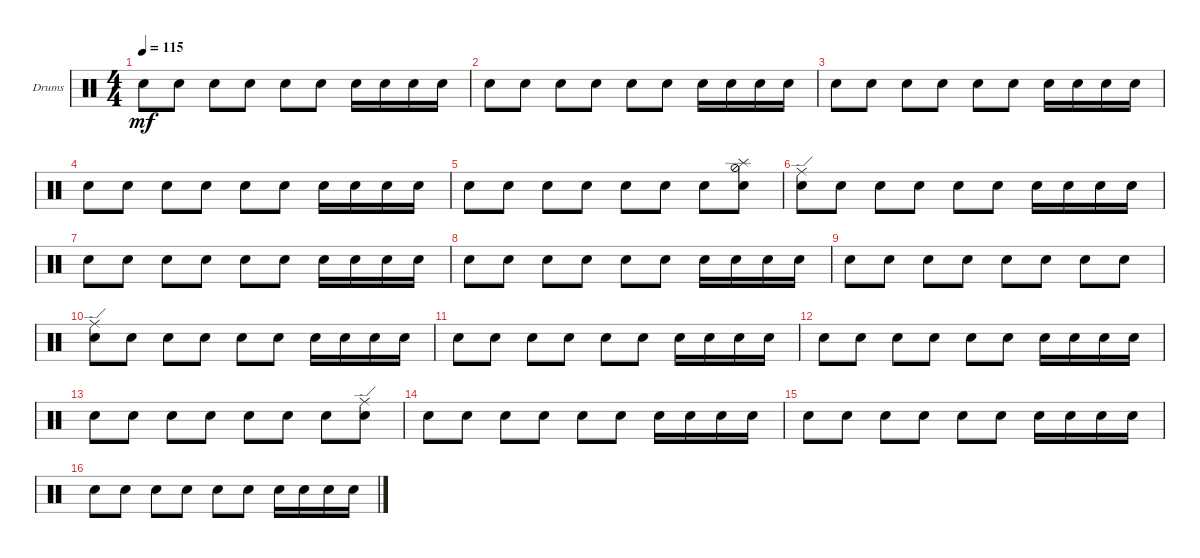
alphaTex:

\defaultSystemsLayout 4
\bracketExtendMode groupsimilarinstruments
\firstSystemTrackNameOrientation horizontal
\otherSystemsTrackNameOrientation horizontal
\track ("Drumkit" "Drums") {instrument percussion}
\staff {score}
\articulation defaults
\ts (4 4)
\tempo 115
\clef neutral
\ks c "Snare (hit) 2".8{dy mf} "Snare (hit) 2".8 "Snare (hit) 2".8 "Snare (hit) 2".8 "Snare (hit) 2".8 "Snare (hit) 2".8 "Snare (hit) 2".16 "Snare (hit) 2".16 "Snare (hit) 2".16 "Snare (hit) 2".16
|
"Snare (hit) 2".8 "Snare (hit) 2".8 "Snare (hit) 2".8 "Snare (hit) 2".8 "Snare (hit) 2".8 "Snare (hit) 2".8 "Snare (hit) 2".16 "Snare (hit) 2".16 "Snare (hit) 2".16 "Snare (hit) 2".16 |
"Snare (hit) 2".8 "Snare (hit) 2".8 "Snare (hit) 2".8 "Snare (hit) 2".8 "Snare (hit) 2".8 "Snare (hit) 2".8 "Snare (hit) 2".16 "Snare (hit) 2".16 "Snare (hit) 2".16 "Snare (hit) 2".16 |
"Snare (hit) 2".8 "Snare (hit) 2".8 "Snare (hit) 2".8 "Snare (hit) 2".8 "Snare (hit) 2".8 "Snare (hit) 2".8 "Snare (hit) 2".16 "Snare (hit) 2".16 "Snare (hit) 2".16 "Snare (hit) 2".16 |
"Snare (hit) 2".8 "Snare (hit) 2".8 "Snare (hit) 2".8 "Snare (hit) 2".8 "Snare (hit) 2".8 "Snare (hit) 2".8 "Snare (hit) 2".8 ("Snare (hit) 2" "Splash (hit)" "Hi-Hat (half)").8 |
("Snare (hit) 2" "Ride (edge)").8 "Snare (hit) 2".8 "Snare (hit) 2".8 "Snare (hit) 2".8 "Snare (hit) 2".8 "Snare (hit) 2".8 "Snare (hit) 2".16 "Snare (hit) 2".16 "Snare (hit) 2".16 "Snare (hit) 2".16 |
"Snare (hit) 2".8 "Snare (hit) 2".8 "Snare (hit) 2".8 "Snare (hit) 2".8 "Snare (hit) 2".8 "Snare (hit) 2".8 "Snare (hit) 2".16 "Snare (hit) 2".16 "Snare (hit) 2".16 "Snare (hit) 2".16 |
"Snare (hit) 2".8 "Snare (hit) 2".8 "Snare (hit) 2".8 "Snare (hit) 2".8 "Snare (hit) 2".8 "Snare (hit) 2".8 "Snare (hit) 2".16 "Snare (hit) 2".16 "Snare (hit) 2".16 "Snare (hit) 2".16 |
"Snare (hit) 2".8 "Snare (hit) 2".8 "Snare (hit) 2".8 "Snare (hit) 2".8 "Snare (hit) 2".8 "Snare (hit) 2".8 "Snare (hit) 2".8 "Snare (hit) 2".8 |
("Ride (edge)" "Snare (hit) 2").8 "Snare (hit) 2".8 "Snare (hit) 2".8 "Snare (hit) 2".8 "Snare (hit) 2".8 "Snare (hit) 2".8 "Snare (hit) 2".16 "Snare (hit) 2".16 "Snare (hit) 2".16 "Snare (hit) 2".16 |
"Snare (hit) 2".8 "Snare (hit) 2".8 "Snare (hit) 2".8 "Snare (hit) 2".8 "Snare (hit) 2".8 "Snare (hit) 2".8 "Snare (hit) 2".16 "Snare (hit) 2".16 "Snare (hit) 2".16 "Snare (hit) 2".16 |
"Snare (hit) 2".8 "Snare (hit) 2".8 "Snare (hit) 2".8 "Snare (hit) 2".8 "Snare (hit) 2".8 "Snare (hit) 2".8 "Snare (hit) 2".16 "Snare (hit) 2".16 "Snare (hit) 2".16 "Snare (hit) 2".16 |
"Snare (hit) 2".8 "Snare (hit) 2".8 "Snare (hit) 2".8 "Snare (hit) 2".8 "Snare (hit) 2".8 "Snare (hit) 2".8 "Snare (hit) 2".8 ("Snare (hit) 2" "Ride (edge)").8 |
"Snare (hit) 2".8 "Snare (hit) 2".8 "Snare (hit) 2".8 "Snare (hit) 2".8 "Snare (hit) 2".8 "Snare (hit) 2".8 "Snare (hit) 2".16 "Snare (hit) 2".16 "Snare (hit) 2".16 "Snare (hit) 2".16 |
"Snare (hit) 2".8 "Snare (hit) 2".8 "Snare (hit) 2".8 "Snare (hit) 2".8 "Snare (hit) 2".8 "Snare (hit) 2".8 "Snare (hit) 2".16 "Snare (hit) 2".16 "Snare (hit) 2".16 "Snare (hit) 2".16 |
"Snare (hit) 2".8 "Snare (hit) 2".8 "Snare (hit) 2".8 "Snare (hit) 2".8 "Snare (hit) 2".8 "Snare (hit) 2".8 "Snare (hit) 2".16 "Snare (hit) 2".16 "Snare (hit) 2".16 "Snare (hit) 2".16
